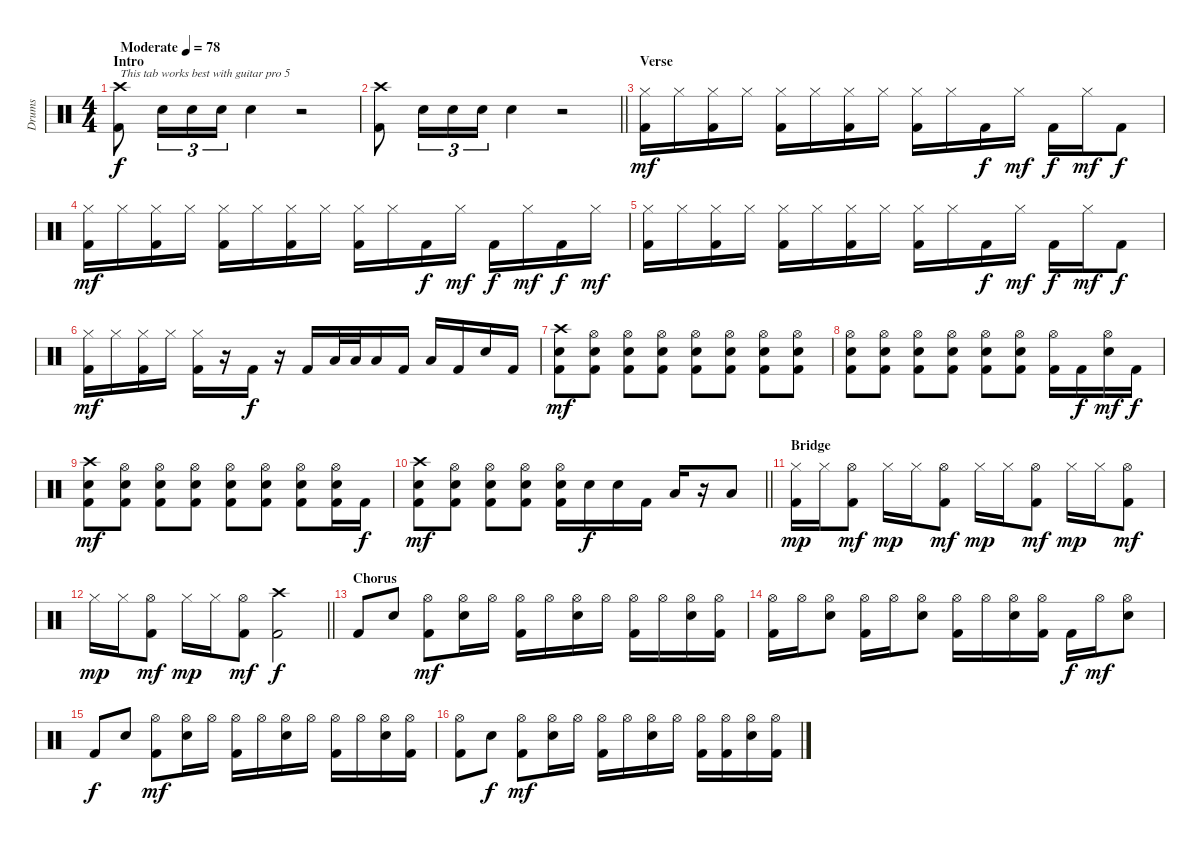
\track ("Drums" "Drums") {instrument percussion}
\staff {score}
\articulation defaults
\ts (4 4)
\section ("" "Intro")
\tempo (78 "Moderate")
\clef neutral
\ks c
("Crash high (hit)" "Kick (hit) 2").8{txt "This tab works best with guitar pro 5" dy f} "Electric Snare (hit)".16{tu (3 2)} "Electric Snare (hit)".16{tu (3 2)} "Electric Snare (hit)".16{tu (3 2)} "Electric Snare (hit)".4 r.2 |
\barLineRight lightlight
("Crash high (hit)" "Kick (hit) 2").8 "Electric Snare (hit)".16{tu (3 2)} "Electric Snare (hit)".16{tu (3 2)} "Electric Snare (hit)".16{tu (3 2)} "Electric Snare (hit)".4 r.2 |
\section ("" "Verse")
("Hi-Hat (closed)" "Kick (hit) 2").16{dy mf} "Hi-Hat (closed)".16 ("Hi-Hat (closed)" "Kick (hit) 2").16 "Hi-Hat (closed)".16 ("Hi-Hat (closed)" "Kick (hit) 2").16 "Hi-Hat (closed)".16 ("Hi-Hat (closed)" "Kick (hit) 2").16 "Hi-Hat (closed)".16 ("Hi-Hat (closed)" "Kick (hit) 2").16 "Hi-Hat (closed)".16 "Kick (hit) 2".16{dy f} "Hi-Hat (closed)".16{dy mf} "Kick (hit) 2".16{dy f} "Hi-Hat (closed)".16{dy mf} "Kick (hit) 2".8{dy f} |
("Hi-Hat (closed)" "Kick (hit) 2").16{dy mf} "Hi-Hat (closed)".16 ("Hi-Hat (closed)" "Kick (hit) 2").16 "Hi-Hat (closed)".16 ("Hi-Hat (closed)" "Kick (hit) 2").16 "Hi-Hat (closed)".16 ("Hi-Hat (closed)" "Kick (hit) 2").16 "Hi-Hat (closed)".16 ("Hi-Hat (closed)" "Kick (hit) 2").16 "Hi-Hat (closed)".16 "Kick (hit) 2".16{dy f} "Hi-Hat (closed)".16{dy mf} "Kick (hit) 2".16{dy f} "Hi-Hat (closed)".16{dy mf} "Kick (hit) 2".16{dy f} "Hi-Hat (closed)".16{dy mf} |
("Hi-Hat (closed)" "Kick (hit) 2").16 "Hi-Hat (closed)".16 ("Hi-Hat (closed)" "Kick (hit) 2").16 "Hi-Hat (closed)".16 ("Hi-Hat (closed)" "Kick (hit) 2").16 "Hi-Hat (closed)".16 ("Hi-Hat (closed)" "Kick (hit) 2").16 "Hi-Hat (closed)".16 ("Hi-Hat (closed)" "Kick (hit) 2").16 "Hi-Hat (closed)".16 "Kick (hit) 2".16{dy f} "Hi-Hat (closed)".16{dy mf} "Kick (hit) 2".16{dy f} "Hi-Hat (closed)".16{dy mf} "Kick (hit) 2".8{dy f} |
("Hi-Hat (closed)" "Kick (hit) 2").16{dy mf} "Hi-Hat (closed)".16 ("Hi-Hat (closed)" "Kick (hit) 2").16 "Hi-Hat (closed)".16 ("Hi-Hat (closed)" "Kick (hit) 2").16 r.16 "Kick (hit) 2".16{dy f} r.16 "Kick (hit) 2".16 "Low Tom (hit)".32 "Low Tom (hit)".32 "Low Tom (hit)".16 "Kick (hit) 2".16 "Low Tom (hit)".16 "Kick (hit) 2".16 "Electric Snare (hit)".16 "Kick (hit) 2".16 |
("Crash high (hit)" "Electric Snare (hit)" "Kick (hit) 2").8{dy mf} ("Hi-Hat (open)" "Electric Snare (hit)" "Kick (hit) 2").8 ("Hi-Hat (open)" "Electric Snare (hit)" "Kick (hit) 2").8 ("Hi-Hat (open)" "Electric Snare (hit)" "Kick (hit) 2").8 ("Hi-Hat (open)" "Electric Snare (hit)" "Kick (hit) 2").8 ("Hi-Hat (open)" "Electric Snare (hit)" "Kick (hit) 2").8 ("Hi-Hat (open)" "Electric Snare (hit)" "Kick (hit) 2").8 ("Hi-Hat (open)" "Electric Snare (hit)" "Kick (hit) 2").8 |
("Hi-Hat (open)" "Electric Snare (hit)" "Kick (hit) 2").8 ("Hi-Hat (open)" "Electric Snare (hit)" "Kick (hit) 2").8 ("Hi-Hat (open)" "Electric Snare (hit)" "Kick (hit) 2").8 ("Hi-Hat (open)" "Electric Snare (hit)" "Kick (hit) 2").8 ("Hi-Hat (open)" "Electric Snare (hit)" "Kick (hit) 2").8 ("Hi-Hat (open)" "Electric Snare (hit)" "Kick (hit) 2").8 ("Hi-Hat (open)" "Kick (hit) 2").16 "Kick (hit) 2".16{dy f} ("Hi-Hat (open)" "Electric Snare (hit)").16{dy mf} "Kick (hit) 2".16{dy f} |
("Crash high (hit)" "Electric Snare (hit)" "Kick (hit) 2").8{dy mf} ("Hi-Hat (open)" "Electric Snare (hit)" "Kick (hit) 2").8 ("Hi-Hat (open)" "Electric Snare (hit)" "Kick (hit) 2").8 ("Hi-Hat (open)" "Electric Snare (hit)" "Kick (hit) 2").8 ("Hi-Hat (open)" "Electric Snare (hit)" "Kick (hit) 2").8 ("Hi-Hat (open)" "Electric Snare (hit)" "Kick (hit) 2").8 ("Hi-Hat (open)" "Electric Snare (hit)" "Kick (hit) 2").8 ("Hi-Hat (open)" "Electric Snare (hit)" "Kick (hit) 2").16 "Kick (hit) 2".16{dy f} |
\barLineRight lightlight
("Crash high (hit)" "Electric Snare (hit)" "Kick (hit) 2").8{dy mf} ("Hi-Hat (open)" "Electric Snare (hit)" "Kick (hit) 2").8 ("Hi-Hat (open)" "Electric Snare (hit)" "Kick (hit) 2").8 ("Hi-Hat (open)" "Electric Snare (hit)" "Kick (hit) 2").8 ("Hi-Hat (open)" "Electric Snare (hit)" "Kick (hit) 2").16 "Electric Snare (hit)".16{dy f} "Electric Snare (hit)".16 "Kick (hit) 2".16 "Low Tom (hit)".16 r.16 "Low Tom (hit)".8 |
\section ("" "Bridge")
("Hi-Hat (closed)" "Kick (hit) 2").16{dy mp} "Hi-Hat (closed)".16 ("Hi-Hat (open)" "Kick (hit) 2").8{dy mf} "Hi-Hat (closed)".16{dy mp} "Hi-Hat (closed)".16 ("Hi-Hat (open)" "Kick (hit) 2").8{dy mf} "Hi-Hat (closed)".16{dy mp} "Hi-Hat (closed)".16 ("Hi-Hat (open)" "Kick (hit) 2").8{dy mf} "Hi-Hat (closed)".16{dy mp} "Hi-Hat (closed)".16 ("Hi-Hat (open)" "Kick (hit) 2").8{dy mf} |
\barLineRight lightlight "Hi-Hat (closed)".16{dy mp} "Hi-Hat (closed)".16
("Hi-Hat (open)" "Kick (hit) 2").8{dy mf} "Hi-Hat (closed)".16{dy mp} "Hi-Hat (closed)".16 ("Hi-Hat (open)" "Kick (hit) 2").8{dy mf} ("Crash high (hit)" "Kick (hit) 2").2{dy f} |
\section ("" "Chorus")
"Kick (hit) 2".8 "Electric Snare (hit)".8 ("Hi-Hat (open)" "Kick (hit) 2").8{dy mf} ("Hi-Hat (open)" "Electric Snare (hit)").16 "Hi-Hat (open)".16 ("Hi-Hat (open)" "Kick (hit) 2").16 "Hi-Hat (open)".16 ("Hi-Hat (open)" "Electric Snare (hit)").16 "Hi-Hat (open)".16 ("Hi-Hat (open)" "Kick (hit) 2").16 "Hi-Hat (open)".16 ("Hi-Hat (open)" "Electric Snare (hit)").16 ("Hi-Hat (open)" "Kick (hit) 2").16 |
("Hi-Hat (open)" "Kick (hit) 2").16 "Hi-Hat (open)".16 ("Hi-Hat (open)" "Electric Snare (hit)").8 ("Hi-Hat (open)" "Kick (hit) 2").16 "Hi-Hat (open)".16 ("Hi-Hat (open)" "Electric Snare (hit)").8 ("Hi-Hat (open)" "Kick (hit) 2").16 "Hi-Hat (open)".16 ("Hi-Hat (open)" "Electric Snare (hit)").16 ("Hi-Hat (open)" "Kick (hit) 2").16 "Kick (hit) 2".16{dy f} "Hi-Hat (open)".16{dy mf} ("Hi-Hat (open)" "Electric Snare (hit)").8 |
"Kick (hit) 2".8{dy f} "Electric Snare (hit)".8 ("Hi-Hat (open)" "Kick (hit) 2").8{dy mf} ("Hi-Hat (open)" "Electric Snare (hit)").16 "Hi-Hat (open)".16 ("Hi-Hat (open)" "Kick (hit) 2").16 "Hi-Hat (open)".16 ("Hi-Hat (open)" "Electric Snare (hit)").16 "Hi-Hat (open)".16 ("Hi-Hat (open)" "Kick (hit) 2").16 "Hi-Hat (open)".16 ("Hi-Hat (open)" "Electric Snare (hit)").16 ("Hi-Hat (open)" "Kick (hit) 2").16 |
("Hi-Hat (open)" "Kick (hit) 2").8 "Electric Snare (hit)".8{dy f} ("Hi-Hat (open)" "Kick (hit) 2").8{dy mf} ("Hi-Hat (open)" "Electric Snare (hit)").16 "Hi-Hat (open)".16 ("Hi-Hat (open)" "Kick (hit) 2").16 "Hi-Hat (open)".16 ("Hi-Hat (open)" "Electric Snare (hit)").16 "Hi-Hat (open)".16 ("Hi-Hat (open)" "Kick (hit) 2").16 ("Hi-Hat (open)" "Kick (hit) 2").16 ("Hi-Hat (open)" "Electric Snare (hit)").16 ("Hi-Hat (open)" "Kick (hit) 2").16
